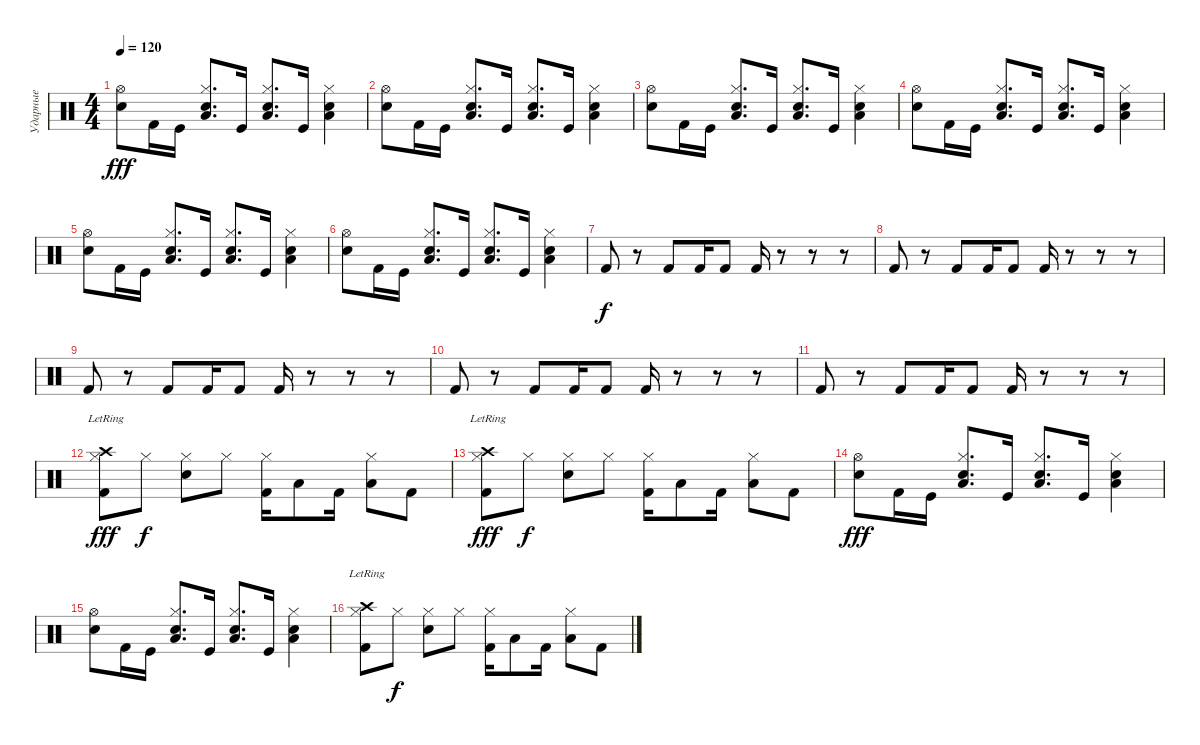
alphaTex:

\track ("Ударные" "Ударные") {instrument percussion}
\staff {score}
\articulation defaults
\ts (4 4)
\tempo 120
\clef neutral
\ks c
("Hi-Hat (open)" "Snare (hit) 2").8{dy fff} "Kick (hit) 2".16 "Kick (hit)".16 ("Hi-Hat (closed)" "Low Tom (hit)" "Snare (hit) 2").8{d} "Kick (hit)".16 ("Hi-Hat (closed)" "Low Tom (hit)" "Snare (hit) 2").8{d} "Kick (hit)".16 ("Hi-Hat (closed)" "Low Tom (hit)" "Snare (hit) 2").4 |
("Hi-Hat (open)" "Snare (hit) 2").8 "Kick (hit) 2".16 "Kick (hit)".16 ("Hi-Hat (closed)" "Low Tom (hit)" "Snare (hit) 2").8{d} "Kick (hit)".16 ("Hi-Hat (closed)" "Low Tom (hit)" "Snare (hit) 2").8{d} "Kick (hit)".16 ("Hi-Hat (closed)" "Low Tom (hit)" "Snare (hit) 2").4 |
("Hi-Hat (open)" "Snare (hit) 2").8 "Kick (hit) 2".16 "Kick (hit)".16 ("Hi-Hat (closed)" "Low Tom (hit)" "Snare (hit) 2").8{d} "Kick (hit)".16 ("Hi-Hat (closed)" "Low Tom (hit)" "Snare (hit) 2").8{d} "Kick (hit)".16 ("Hi-Hat (closed)" "Low Tom (hit)" "Snare (hit) 2").4 |
("Hi-Hat (open)" "Snare (hit) 2").8 "Kick (hit) 2".16 "Kick (hit)".16 ("Hi-Hat (closed)" "Low Tom (hit)" "Snare (hit) 2").8{d} "Kick (hit)".16 ("Hi-Hat (closed)" "Low Tom (hit)" "Snare (hit) 2").8{d} "Kick (hit)".16 ("Hi-Hat (closed)" "Low Tom (hit)" "Snare (hit) 2").4 |
("Hi-Hat (open)" "Snare (hit) 2").8 "Kick (hit) 2".16 "Kick (hit)".16 ("Hi-Hat (closed)" "Low Tom (hit)" "Snare (hit) 2").8{d} "Kick (hit)".16 ("Hi-Hat (closed)" "Low Tom (hit)" "Snare (hit) 2").8{d} "Kick (hit)".16 ("Hi-Hat (closed)" "Low Tom (hit)" "Snare (hit) 2").4 |
("Hi-Hat (open)" "Snare (hit) 2").8 "Kick (hit) 2".16 "Kick (hit)".16 ("Hi-Hat (closed)" "Low Tom (hit)" "Snare (hit) 2").8{d} "Kick (hit)".16 ("Hi-Hat (closed)" "Low Tom (hit)" "Snare (hit) 2").8{d} "Kick (hit)".16 ("Hi-Hat (closed)" "Low Tom (hit)" "Snare (hit) 2").4 |
"Kick (hit) 2".8{dy f} r.8 "Kick (hit) 2".8 "Kick (hit) 2".16 "Kick (hit) 2".8 "Kick (hit) 2".16 r.8 r.8 r.8 |
"Kick (hit) 2".8 r.8 "Kick (hit) 2".8 "Kick (hit) 2".16 "Kick (hit) 2".8 "Kick (hit) 2".16 r.8 r.8 r.8 |
"Kick (hit) 2".8 r.8 "Kick (hit) 2".8 "Kick (hit) 2".16 "Kick (hit) 2".8 "Kick (hit) 2".16 r.8 r.8 r.8 |
"Kick (hit) 2".8 r.8 "Kick (hit) 2".8 "Kick (hit) 2".16 "Kick (hit) 2".8 "Kick (hit) 2".16 r.8 r.8 r.8 |
"Kick (hit) 2".8 r.8 "Kick (hit) 2".8 "Kick (hit) 2".16 "Kick (hit) 2".8 "Kick (hit) 2".16 r.8 r.8 r.8 |
("Hi-Hat (closed)" "Kick (hit) 2" "Crash high (hit)"{lr}).8{dy fff} "Hi-Hat (closed)".8{dy f} ("Hi-Hat (closed)" "Snare (hit) 2").8 "Hi-Hat (closed)".8 ("Kick (hit) 2" "Hi-Hat (closed)").16 "Low Tom (hit)".8 "Kick (hit) 2".16 ("Low Tom (hit)" "Hi-Hat (closed)").8 "Kick (hit) 2".8 |
("Hi-Hat (closed)" "Kick (hit) 2" "Crash high (hit)"{lr}).8{dy fff} "Hi-Hat (closed)".8{dy f} ("Hi-Hat (closed)" "Snare (hit) 2").8 "Hi-Hat (closed)".8 ("Kick (hit) 2" "Hi-Hat (closed)").16 "Low Tom (hit)".8 "Kick (hit) 2".16 ("Low Tom (hit)" "Hi-Hat (closed)").8 "Kick (hit) 2".8 |
("Hi-Hat (open)" "Snare (hit) 2").8{dy fff} "Kick (hit) 2".16 "Kick (hit)".16 ("Hi-Hat (closed)" "Low Tom (hit)" "Snare (hit) 2").8{d} "Kick (hit)".16 ("Hi-Hat (closed)" "Low Tom (hit)" "Snare (hit) 2").8{d} "Kick (hit)".16 ("Hi-Hat (closed)" "Low Tom (hit)" "Snare (hit) 2").4 |
("Hi-Hat (open)" "Snare (hit) 2").8 "Kick (hit) 2".16 "Kick (hit)".16 ("Hi-Hat (closed)" "Low Tom (hit)" "Snare (hit) 2").8{d} "Kick (hit)".16 ("Hi-Hat (closed)" "Low Tom (hit)" "Snare (hit) 2").8{d} "Kick (hit)".16 ("Hi-Hat (closed)" "Low Tom (hit)" "Snare (hit) 2").4 |
("Hi-Hat (closed)" "Kick (hit) 2" "Crash high (hit)"{lr}).8 "Hi-Hat (closed)".8{dy f} ("Hi-Hat (closed)" "Snare (hit) 2").8 "Hi-Hat (closed)".8 ("Kick (hit) 2" "Hi-Hat (closed)").16 "Low Tom (hit)".8 "Kick (hit) 2".16 ("Low Tom (hit)" "Hi-Hat (closed)").8 "Kick (hit) 2".8
